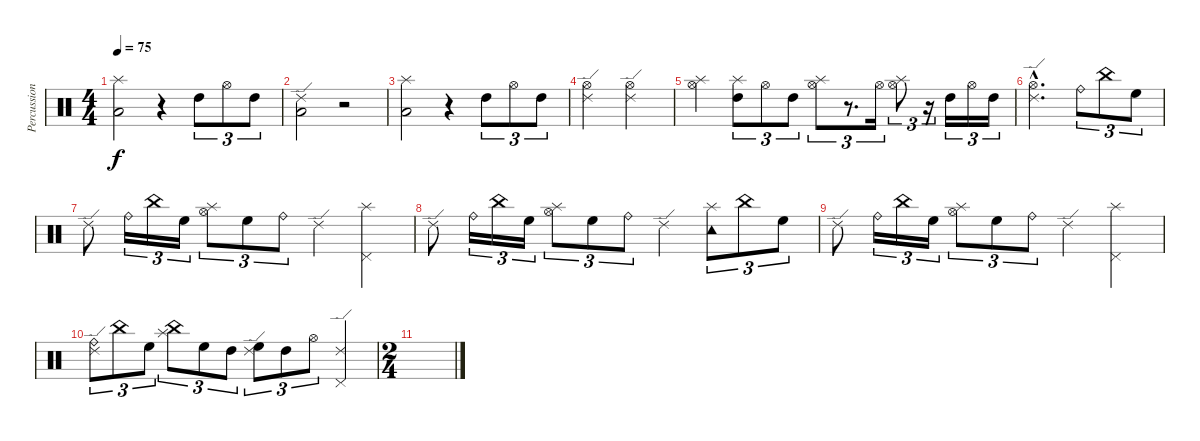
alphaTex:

\track ("Percussion" "Percussion") {instrument percussion}
\staff {score}
\articulation defaults
\ts (4 4)
\tempo 75
\clef neutral
\ks c
("Low Tom (hit)" "Splash (hit)").2{dy f} r.4 "High Tom (hit)".8{tu (3 2)} "Hi-Hat (open)".8{tu (3 2)} "High Tom (hit)".8{tu (3 2)} |
("Low Tom (hit)" "Ride (edge) 2").2 r.2 |
("Low Tom (hit)" "Splash (hit)").2 r.4 "High Tom (hit)".8{tu (3 2)} "Hi-Hat (open)".8{tu (3 2)} "High Tom (hit)".8{tu (3 2)} |
("Ride (edge) 2" "Hi-Hat (open)").2{volume 13} ("Ride (edge) 2" "Hi-Hat (open)").2 |
("Splash (hit)" "Hi-Hat (open)").4{volume 13} ("Splash (hit)" "High Tom (hit)").8{tu (3 2)} "Hi-Hat (open)".8{tu (3 2)} "High Tom (hit)".8{tu (3 2)} ("Splash (hit)" "Hi-Hat (open)").8{tu (3 2)} r.8{d tu (3 2)} "Hi-Hat (open)".16{tu (3 2)} ("Splash (hit)" "Hi-Hat (open)").8{tu (3 2)} r.16{tu (3 2)} "High Tom (hit)".16{tu (3 2)} "Hi-Hat (open)".16{tu (3 2)} "High Tom (hit)".16{tu (3 2)} |
("Ride (edge) 2"{hac} "Hi-Hat (open)"{hac}).2{d} "Ride (bell)".8{tu (3 2)} "China (hit)".8{tu (3 2)} "High Floor Tom (hit)".8{tu (3 2)} |
"Ride (edge) 2".8 "Ride (bell)".16{tu (3 2)} "China (hit)".16{tu (3 2)} "High Floor Tom (hit)".16{tu (3 2)} ("Hi-Hat (open)" "Splash (hit)").8{tu (3 2)} "High Floor Tom (hit)".8{tu (3 2)} "Ride (bell)".8{tu (3 2)} "Ride (edge) 2".4 ("Pedal Hi-Hat (hit)" "Splash (hit)").4 |
"Ride (edge) 2".8 "Ride (bell)".16{tu (3 2)} "China (hit)".16{tu (3 2)} "High Floor Tom (hit)".16{tu (3 2)} ("Hi-Hat (open)" "Splash (hit)").8{tu (3 2)} "High Floor Tom (hit)".8{tu (3 2)} "Ride (bell)".8{tu (3 2)} "Ride (edge) 2".4 ("Tambourine (hit)" "Splash (hit)").8{tu (3 2)} "China (hit)".8{tu (3 2)} "High Floor Tom (hit)".8{tu (3 2)} |
"Ride (edge) 2".8 "Ride (bell)".16{tu (3 2)} "China (hit)".16{tu (3 2)} "High Floor Tom (hit)".16{tu (3 2)} ("Hi-Hat (open)" "Splash (hit)").8{tu (3 2)} "High Floor Tom (hit)".8{tu (3 2)} "Ride (bell)".8{tu (3 2)} "Ride (edge) 2".4 ("Pedal Hi-Hat (hit)" "Splash (hit)").4 |
("Ride (bell)" "Ride (edge) 2").8{tu (3 2)} "China (hit)".8{tu (3 2)} "High Floor Tom (hit)".8{tu (3 2)} ("China (hit)" "Splash (hit)").8{tu (3 2)} "High Floor Tom (hit)".8{tu (3 2)} "High Tom (hit)".8{tu (3 2)} ("High Floor Tom (hit)" "Ride (edge) 2").8{tu (3 2)} "High Tom (hit)".8{tu (3 2)} "Hi-Hat (open)".8{tu (3 2)} ("Pedal Hi-Hat (hit)" "Ride (edge) 2").4 |
\ts (2 4)
